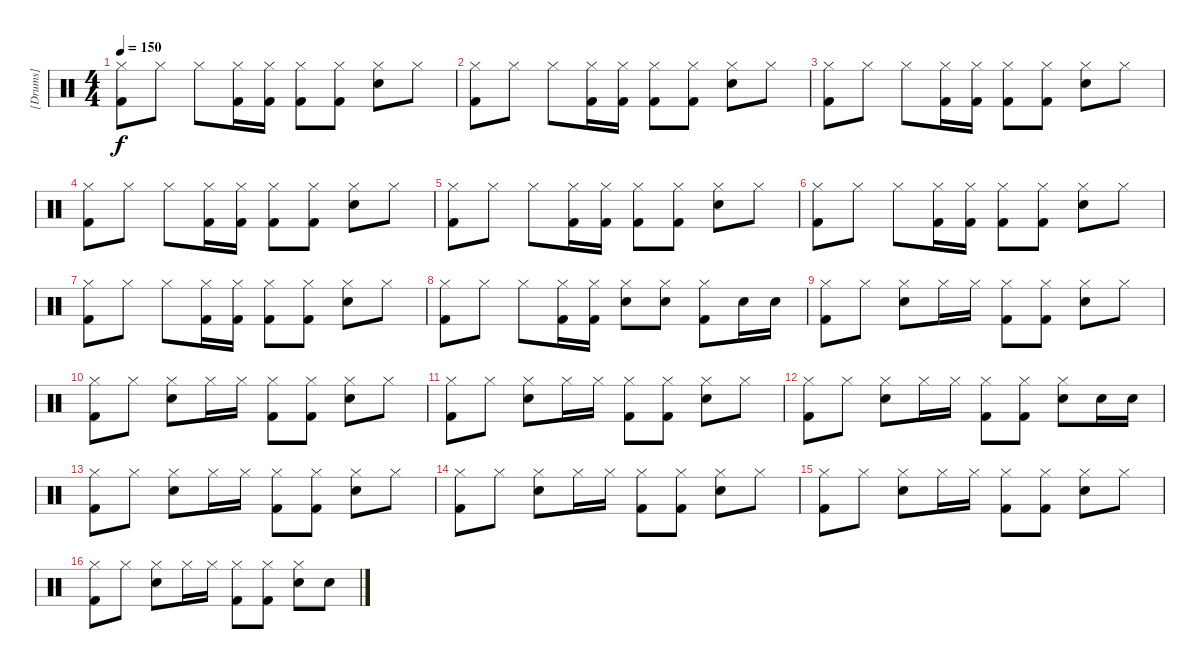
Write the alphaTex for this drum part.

\track ("[Drums]" "[Drums]") {instrument percussion}
\staff {score}
\articulation defaults
\ts (4 4)
\tempo 150
\clef neutral
\ks c
("Hi-Hat (closed)" "Kick (hit) 2").8{dy f} "Hi-Hat (closed)".8 "Hi-Hat (closed)".8 ("Hi-Hat (closed)" "Kick (hit) 2").16 ("Hi-Hat (closed)" "Kick (hit) 2").16 ("Hi-Hat (closed)" "Kick (hit) 2").8 ("Hi-Hat (closed)" "Kick (hit) 2").8 ("Hi-Hat (closed)" "Electric Snare (hit)").8 "Hi-Hat (closed)".8 |
("Hi-Hat (closed)" "Kick (hit) 2").8 "Hi-Hat (closed)".8 "Hi-Hat (closed)".8 ("Hi-Hat (closed)" "Kick (hit) 2").16 ("Hi-Hat (closed)" "Kick (hit) 2").16 ("Hi-Hat (closed)" "Kick (hit) 2").8 ("Hi-Hat (closed)" "Kick (hit) 2").8 ("Hi-Hat (closed)" "Electric Snare (hit)").8 "Hi-Hat (closed)".8 |
("Hi-Hat (closed)" "Kick (hit) 2").8 "Hi-Hat (closed)".8 "Hi-Hat (closed)".8 ("Hi-Hat (closed)" "Kick (hit) 2").16 ("Hi-Hat (closed)" "Kick (hit) 2").16 ("Hi-Hat (closed)" "Kick (hit) 2").8 ("Hi-Hat (closed)" "Kick (hit) 2").8 ("Hi-Hat (closed)" "Electric Snare (hit)").8 "Hi-Hat (closed)".8 |
("Hi-Hat (closed)" "Kick (hit) 2").8 "Hi-Hat (closed)".8 "Hi-Hat (closed)".8 ("Hi-Hat (closed)" "Kick (hit) 2").16 ("Hi-Hat (closed)" "Kick (hit) 2").16 ("Hi-Hat (closed)" "Kick (hit) 2").8 ("Hi-Hat (closed)" "Kick (hit) 2").8 ("Hi-Hat (closed)" "Electric Snare (hit)").8 "Hi-Hat (closed)".8 |
("Hi-Hat (closed)" "Kick (hit) 2").8 "Hi-Hat (closed)".8 "Hi-Hat (closed)".8 ("Hi-Hat (closed)" "Kick (hit) 2").16 ("Hi-Hat (closed)" "Kick (hit) 2").16 ("Hi-Hat (closed)" "Kick (hit) 2").8 ("Hi-Hat (closed)" "Kick (hit) 2").8 ("Hi-Hat (closed)" "Electric Snare (hit)").8 "Hi-Hat (closed)".8 |
("Hi-Hat (closed)" "Kick (hit) 2").8 "Hi-Hat (closed)".8 "Hi-Hat (closed)".8 ("Hi-Hat (closed)" "Kick (hit) 2").16 ("Hi-Hat (closed)" "Kick (hit) 2").16 ("Hi-Hat (closed)" "Kick (hit) 2").8 ("Hi-Hat (closed)" "Kick (hit) 2").8 ("Hi-Hat (closed)" "Electric Snare (hit)").8 "Hi-Hat (closed)".8 |
("Hi-Hat (closed)" "Kick (hit) 2").8 "Hi-Hat (closed)".8 "Hi-Hat (closed)".8 ("Hi-Hat (closed)" "Kick (hit) 2").16 ("Hi-Hat (closed)" "Kick (hit) 2").16 ("Hi-Hat (closed)" "Kick (hit) 2").8 ("Hi-Hat (closed)" "Kick (hit) 2").8 ("Hi-Hat (closed)" "Electric Snare (hit)").8 "Hi-Hat (closed)".8 |
("Hi-Hat (closed)" "Kick (hit) 2").8 "Hi-Hat (closed)".8 "Hi-Hat (closed)".8 ("Hi-Hat (closed)" "Kick (hit) 2").16 ("Hi-Hat (closed)" "Kick (hit) 2").16 ("Hi-Hat (closed)" "Electric Snare (hit)").8 ("Hi-Hat (closed)" "Electric Snare (hit)").8 ("Hi-Hat (closed)" "Kick (hit) 2").8 "Electric Snare (hit)".16 "Electric Snare (hit)".16 |
("Hi-Hat (closed)" "Kick (hit) 2").8 "Hi-Hat (closed)".8 ("Hi-Hat (closed)" "Electric Snare (hit)").8 "Hi-Hat (closed)".16 "Hi-Hat (closed)".16 ("Hi-Hat (closed)" "Kick (hit) 2").8 ("Hi-Hat (closed)" "Kick (hit) 2").8 ("Hi-Hat (closed)" "Electric Snare (hit)").8 "Hi-Hat (closed)".8 |
("Hi-Hat (closed)" "Kick (hit) 2").8 "Hi-Hat (closed)".8 ("Hi-Hat (closed)" "Electric Snare (hit)").8 "Hi-Hat (closed)".16 "Hi-Hat (closed)".16 ("Hi-Hat (closed)" "Kick (hit) 2").8 ("Hi-Hat (closed)" "Kick (hit) 2").8 ("Hi-Hat (closed)" "Electric Snare (hit)").8 "Hi-Hat (closed)".8 |
("Hi-Hat (closed)" "Kick (hit) 2").8 "Hi-Hat (closed)".8 ("Hi-Hat (closed)" "Electric Snare (hit)").8 "Hi-Hat (closed)".16 "Hi-Hat (closed)".16 ("Hi-Hat (closed)" "Kick (hit) 2").8 ("Hi-Hat (closed)" "Kick (hit) 2").8 ("Hi-Hat (closed)" "Electric Snare (hit)").8 "Hi-Hat (closed)".8 |
("Hi-Hat (closed)" "Kick (hit) 2").8 "Hi-Hat (closed)".8 ("Hi-Hat (closed)" "Electric Snare (hit)").8 "Hi-Hat (closed)".16 "Hi-Hat (closed)".16 ("Hi-Hat (closed)" "Kick (hit) 2").8 ("Hi-Hat (closed)" "Kick (hit) 2").8 ("Hi-Hat (closed)" "Electric Snare (hit)").8 "Electric Snare (hit)".16 "Electric Snare (hit)".16 |
("Hi-Hat (closed)" "Kick (hit) 2").8 "Hi-Hat (closed)".8 ("Hi-Hat (closed)" "Electric Snare (hit)").8 "Hi-Hat (closed)".16 "Hi-Hat (closed)".16 ("Hi-Hat (closed)" "Kick (hit) 2").8 ("Hi-Hat (closed)" "Kick (hit) 2").8 ("Hi-Hat (closed)" "Electric Snare (hit)").8 "Hi-Hat (closed)".8 |
("Hi-Hat (closed)" "Kick (hit) 2").8 "Hi-Hat (closed)".8 ("Hi-Hat (closed)" "Electric Snare (hit)").8 "Hi-Hat (closed)".16 "Hi-Hat (closed)".16 ("Hi-Hat (closed)" "Kick (hit) 2").8 ("Hi-Hat (closed)" "Kick (hit) 2").8 ("Hi-Hat (closed)" "Electric Snare (hit)").8 "Hi-Hat (closed)".8 |
("Hi-Hat (closed)" "Kick (hit) 2").8 "Hi-Hat (closed)".8 ("Hi-Hat (closed)" "Electric Snare (hit)").8 "Hi-Hat (closed)".16 "Hi-Hat (closed)".16 ("Hi-Hat (closed)" "Kick (hit) 2").8 ("Hi-Hat (closed)" "Kick (hit) 2").8 ("Hi-Hat (closed)" "Electric Snare (hit)").8 "Hi-Hat (closed)".8 |
("Hi-Hat (closed)" "Kick (hit) 2").8 "Hi-Hat (closed)".8 ("Hi-Hat (closed)" "Electric Snare (hit)").8 "Hi-Hat (closed)".16 "Hi-Hat (closed)".16 ("Hi-Hat (closed)" "Kick (hit) 2").8 ("Hi-Hat (closed)" "Kick (hit) 2").8 ("Hi-Hat (closed)" "Electric Snare (hit)").8 "Electric Snare (hit)".8
